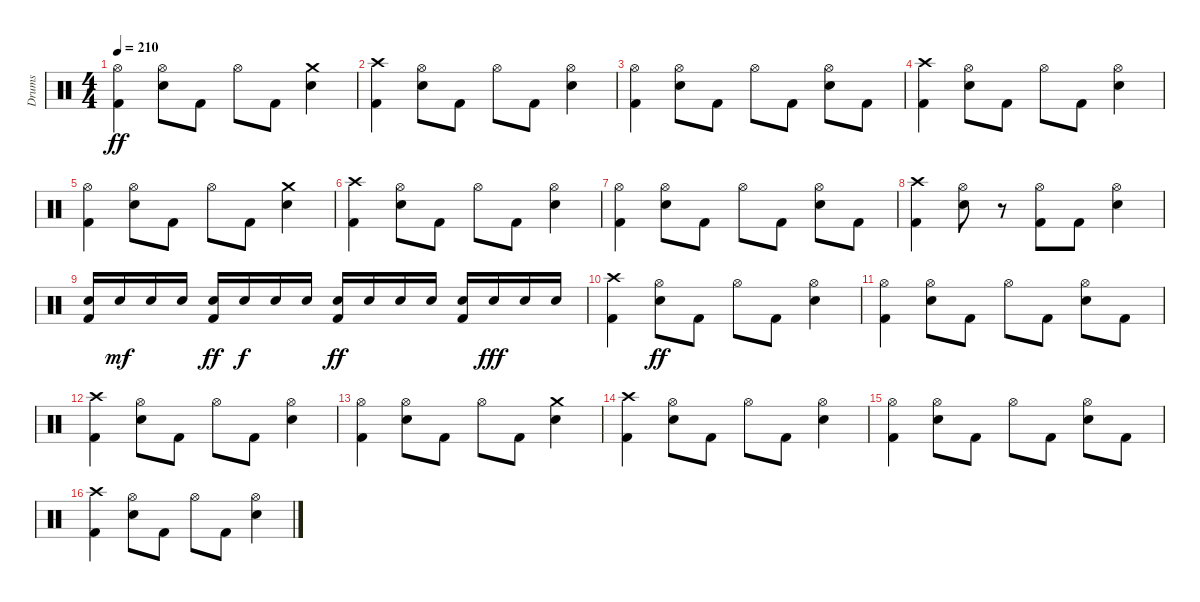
\track ("Drums" "Drums") {instrument percussion}
\staff {score}
\articulation defaults
\ts (4 4)
\tempo 210
\clef neutral
\ks c
("Hi-Hat (open)" "Kick (hit) 2").4{dy ff} ("Hi-Hat (open)" "Electric Snare (hit)").8 "Kick (hit) 2".8 "Hi-Hat (open)".8 "Kick (hit) 2".8 ("Crash medium (hit)" "Electric Snare (hit)").4 |
("Crash high (hit)" "Kick (hit) 2").4 ("Hi-Hat (open)" "Electric Snare (hit)").8 "Kick (hit) 2".8 "Hi-Hat (open)".8 "Kick (hit) 2".8 ("Hi-Hat (open)" "Electric Snare (hit)").4 |
("Hi-Hat (open)" "Kick (hit) 2").4 ("Hi-Hat (open)" "Electric Snare (hit)").8 "Kick (hit) 2".8 "Hi-Hat (open)".8 "Kick (hit) 2".8 ("Hi-Hat (open)" "Electric Snare (hit)").8 "Kick (hit) 2".8 |
("Crash high (hit)" "Kick (hit) 2").4 ("Hi-Hat (open)" "Electric Snare (hit)").8 "Kick (hit) 2".8 "Hi-Hat (open)".8 "Kick (hit) 2".8 ("Hi-Hat (open)" "Electric Snare (hit)").4 |
("Hi-Hat (open)" "Kick (hit) 2").4 ("Hi-Hat (open)" "Electric Snare (hit)").8 "Kick (hit) 2".8 "Hi-Hat (open)".8 "Kick (hit) 2".8 ("Crash medium (hit)" "Electric Snare (hit)").4 |
("Crash high (hit)" "Kick (hit) 2").4 ("Hi-Hat (open)" "Electric Snare (hit)").8 "Kick (hit) 2".8 "Hi-Hat (open)".8 "Kick (hit) 2".8 ("Hi-Hat (open)" "Electric Snare (hit)").4 |
("Hi-Hat (open)" "Kick (hit) 2").4 ("Hi-Hat (open)" "Electric Snare (hit)").8 "Kick (hit) 2".8 "Hi-Hat (open)".8 "Kick (hit) 2".8 ("Hi-Hat (open)" "Electric Snare (hit)").8 "Kick (hit) 2".8 |
("Crash high (hit)" "Kick (hit) 2").4 ("Hi-Hat (open)" "Electric Snare (hit)").8 r.8 ("Hi-Hat (open)" "Kick (hit) 2").8 "Kick (hit) 2".8 ("Hi-Hat (open)" "Electric Snare (hit)").4 |
("Electric Snare (hit)" "Kick (hit) 2").16 "Electric Snare (hit)".16{dy mf} "Electric Snare (hit)".16 "Electric Snare (hit)".16 ("Electric Snare (hit)" "Kick (hit) 2").16{dy ff} "Electric Snare (hit)".16{dy f} "Electric Snare (hit)".16 "Electric Snare (hit)".16 ("Electric Snare (hit)" "Kick (hit) 2").16{dy ff} "Electric Snare (hit)".16 "Electric Snare (hit)".16 "Electric Snare (hit)".16 ("Electric Snare (hit)" "Kick (hit) 2").16 "Electric Snare (hit)".16{dy fff} "Electric Snare (hit)".16 "Electric Snare (hit)".16 |
("Crash high (hit)" "Kick (hit) 2").4 ("Hi-Hat (open)" "Electric Snare (hit)").8{dy ff} "Kick (hit) 2".8 "Hi-Hat (open)".8 "Kick (hit) 2".8 ("Hi-Hat (open)" "Electric Snare (hit)").4 |
("Hi-Hat (open)" "Kick (hit) 2").4 ("Hi-Hat (open)" "Electric Snare (hit)").8 "Kick (hit) 2".8 "Hi-Hat (open)".8 "Kick (hit) 2".8 ("Hi-Hat (open)" "Electric Snare (hit)").8 "Kick (hit) 2".8 |
("Crash high (hit)" "Kick (hit) 2").4 ("Hi-Hat (open)" "Electric Snare (hit)").8 "Kick (hit) 2".8 "Hi-Hat (open)".8 "Kick (hit) 2".8 ("Hi-Hat (open)" "Electric Snare (hit)").4 |
("Hi-Hat (open)" "Kick (hit) 2").4 ("Hi-Hat (open)" "Electric Snare (hit)").8 "Kick (hit) 2".8 "Hi-Hat (open)".8 "Kick (hit) 2".8 ("Crash medium (hit)" "Electric Snare (hit)").4 |
("Crash high (hit)" "Kick (hit) 2").4 ("Hi-Hat (open)" "Electric Snare (hit)").8 "Kick (hit) 2".8 "Hi-Hat (open)".8 "Kick (hit) 2".8 ("Hi-Hat (open)" "Electric Snare (hit)").4 |
("Hi-Hat (open)" "Kick (hit) 2").4 ("Hi-Hat (open)" "Electric Snare (hit)").8 "Kick (hit) 2".8 "Hi-Hat (open)".8 "Kick (hit) 2".8 ("Hi-Hat (open)" "Electric Snare (hit)").8 "Kick (hit) 2".8 |
("Crash high (hit)" "Kick (hit) 2").4 ("Hi-Hat (open)" "Electric Snare (hit)").8 "Kick (hit) 2".8 "Hi-Hat (open)".8 "Kick (hit) 2".8 ("Hi-Hat (open)" "Electric Snare (hit)").4
